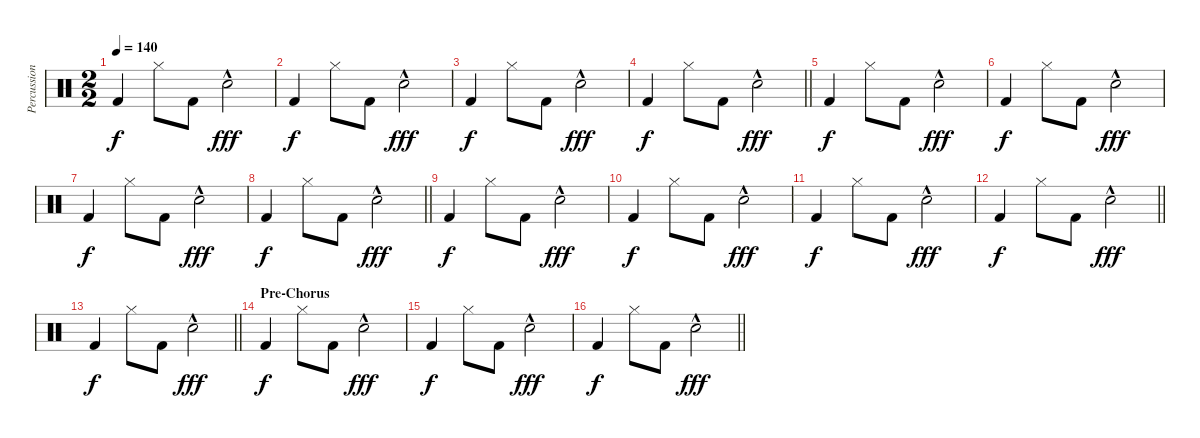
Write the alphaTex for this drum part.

\track ("Percussion" "Percussion") {instrument percussion}
\staff {score}
\articulation defaults
\ts (2 2)
\tempo 140
\clef neutral
\ks c "Kick (hit) 2".4{dy f} "Hi-Hat (closed)".8 "Kick (hit) 2".8 "Hand Clap (hit)"{hac}.2{dy fff}
|
"Kick (hit) 2".4{dy f} "Hi-Hat (closed)".8 "Kick (hit) 2".8 "Hand Clap (hit)"{hac}.2{dy fff} |
"Kick (hit) 2".4{dy f} "Hi-Hat (closed)".8 "Kick (hit) 2".8 "Hand Clap (hit)"{hac}.2{dy fff} |
\barLineRight lightlight "Kick (hit) 2".4{dy f} "Hi-Hat (closed)".8 "Kick (hit) 2".8 "Hand Clap (hit)"{hac}.2{dy fff}
|
"Kick (hit) 2".4{dy f} "Hi-Hat (closed)".8 "Kick (hit) 2".8 "Hand Clap (hit)"{hac}.2{dy fff} |
"Kick (hit) 2".4{dy f} "Hi-Hat (closed)".8 "Kick (hit) 2".8 "Hand Clap (hit)"{hac}.2{dy fff} |
"Kick (hit) 2".4{dy f} "Hi-Hat (closed)".8 "Kick (hit) 2".8 "Hand Clap (hit)"{hac}.2{dy fff} |
\barLineRight lightlight "Kick (hit) 2".4{dy f} "Hi-Hat (closed)".8 "Kick (hit) 2".8 "Hand Clap (hit)"{hac}.2{dy fff}
|
"Kick (hit) 2".4{dy f} "Hi-Hat (closed)".8 "Kick (hit) 2".8 "Hand Clap (hit)"{hac}.2{dy fff} |
"Kick (hit) 2".4{dy f} "Hi-Hat (closed)".8 "Kick (hit) 2".8 "Hand Clap (hit)"{hac}.2{dy fff} |
"Kick (hit) 2".4{dy f} "Hi-Hat (closed)".8 "Kick (hit) 2".8 "Hand Clap (hit)"{hac}.2{dy fff} |
\barLineRight lightlight "Kick (hit) 2".4{dy f} "Hi-Hat (closed)".8 "Kick (hit) 2".8 "Hand Clap (hit)"{hac}.2{dy fff}
|
\barLineRight lightlight "Kick (hit) 2".4{dy f} "Hi-Hat (closed)".8 "Kick (hit) 2".8 "Hand Clap (hit)"{hac}.2{dy fff}
|
\section ("" "Pre-Chorus")
"Kick (hit) 2".4{dy f} "Hi-Hat (closed)".8 "Kick (hit) 2".8 "Hand Clap (hit)"{hac}.2{dy fff} |
"Kick (hit) 2".4{dy f} "Hi-Hat (closed)".8 "Kick (hit) 2".8 "Hand Clap (hit)"{hac}.2{dy fff} |
\barLineRight lightlight "Kick (hit) 2".4{dy f} "Hi-Hat (closed)".8 "Kick (hit) 2".8 "Hand Clap (hit)"{hac}.2{dy fff}
